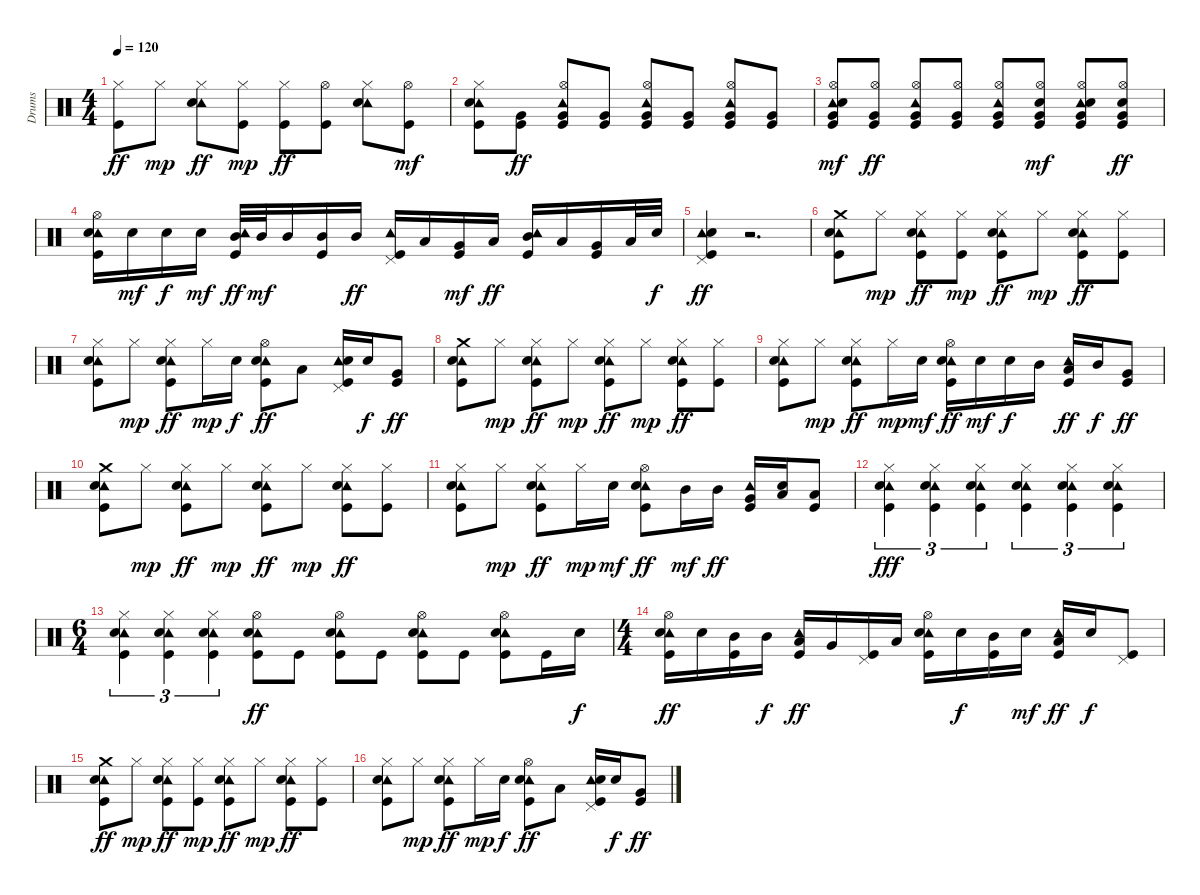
\track ("Drums" "Drums") {instrument percussion}
\staff {score}
\articulation defaults
\ts (4 4)
\tempo 120
\clef neutral
\ks c
("Hi-Hat (closed)" "Kick (hit)").8{dy ff} "Hi-Hat (closed)".8{dy mp} ("Hi-Hat (closed)" "Tambourine (hit)" "Snare (hit) 2").8{dy ff} ("Hi-Hat (closed)" "Kick (hit)").8{dy mp} ("Hi-Hat (closed)" "Kick (hit)").8{dy ff} ("Hi-Hat (open)" "Kick (hit)").8 ("Hi-Hat (closed)" "Tambourine (hit)" "Snare (hit) 2").8 ("Hi-Hat (open)" "Kick (hit)").8{dy mf} |
("Hi-Hat (closed)" "Tambourine (hit)" "Snare (hit) 2" "Kick (hit)").8 ("Very Low Tom (hit)" "Kick (hit)").8{dy ff} ("Hi-Hat (open)" "Tambourine (hit)" "Very Low Tom (hit)" "Kick (hit)").8 ("Very Low Tom (hit)" "Kick (hit)").8 ("Hi-Hat (open)" "Tambourine (hit)" "Very Low Tom (hit)" "Kick (hit)").8 ("Very Low Tom (hit)" "Kick (hit)").8 ("Hi-Hat (open)" "Tambourine (hit)" "Very Low Tom (hit)" "Kick (hit)").8 ("Very Low Tom (hit)" "Kick (hit)").8 |
("Hi-Hat (open)" "Tambourine (hit)" "Very Low Tom (hit)" "Snare (hit) 2" "Kick (hit)").8{dy mf} ("Hi-Hat (open)" "Very Low Tom (hit)" "Kick (hit)").8{dy ff} ("Hi-Hat (open)" "Tambourine (hit)" "Very Low Tom (hit)" "Kick (hit)").8 ("Hi-Hat (open)" "Very Low Tom (hit)" "Kick (hit)").8 ("Hi-Hat (open)" "Tambourine (hit)" "Very Low Tom (hit)" "Kick (hit)").8 ("Hi-Hat (open)" "Very Low Tom (hit)" "Snare (hit) 2" "Kick (hit)").8{dy mf} ("Hi-Hat (open)" "Tambourine (hit)" "Very Low Tom (hit)" "Snare (hit) 2" "Kick (hit)").8 ("Hi-Hat (open)" "Very Low Tom (hit)" "Snare (hit) 2" "Kick (hit)").8{dy ff} |
("Hi-Hat (open)" "Tambourine (hit)" "Snare (hit) 2" "Kick (hit)").16 "Snare (hit) 2".16{dy mf} "Snare (hit) 2".16{dy f} "Snare (hit) 2".16{dy mf} ("Tambourine (hit)" "Mid Tom (hit)" "Kick (hit)").32{dy ff} "Mid Tom (hit)".32{dy mf} "Mid Tom (hit)".16 ("Mid Tom (hit)" "Kick (hit)").16 "Mid Tom (hit)".16{dy ff} ("Pedal Hi-Hat (hit)" "Tambourine (hit)" "Kick (hit)").16 "Low Tom (hit)".16 ("Very Low Tom (hit)" "Kick (hit)").16{dy mf} "Low Floor Tom (hit)".16{dy ff} ("Tambourine (hit)" "Mid Tom (hit)" "Kick (hit)").16 "Low Tom (hit)".16 ("Very Low Tom (hit)" "Kick (hit)").16 "Low Floor Tom (hit)".32 "Snare (hit) 2".32{dy f} |
("Pedal Hi-Hat (hit)" "Tambourine (hit)" "Snare (hit) 2" "Kick (hit)").4{dy ff} r.2{d} |
("Crash medium (hit)" "Tambourine (hit)" "Snare (hit) 2" "Kick (hit)").8 "Hi-Hat (closed)".8{dy mp} ("Hi-Hat (closed)" "Tambourine (hit)" "Snare (hit) 2" "Kick (hit)").8{dy ff} ("Hi-Hat (closed)" "Kick (hit)").8{dy mp} ("Hi-Hat (closed)" "Tambourine (hit)" "Snare (hit) 2" "Kick (hit)").8{dy ff} "Hi-Hat (closed)".8{dy mp} ("Hi-Hat (closed)" "Tambourine (hit)" "Snare (hit) 2" "Kick (hit)").8{dy ff} ("Hi-Hat (closed)" "Kick (hit)").8 |
("Hi-Hat (closed)" "Tambourine (hit)" "Snare (hit) 2" "Kick (hit)").8 "Hi-Hat (closed)".8{dy mp} ("Hi-Hat (closed)" "Tambourine (hit)" "Snare (hit) 2" "Kick (hit)").8{dy ff} "Hi-Hat (closed)".16{dy mp} "Snare (hit) 2".16{dy f} ("Hi-Hat (open)" "Tambourine (hit)" "Snare (hit) 2" "Kick (hit)").8{dy ff} "Low Tom (hit)".8 ("Pedal Hi-Hat (hit)" "Tambourine (hit)" "Snare (hit) 2" "Kick (hit)").16 "Snare (hit) 2".16{dy f} ("Very Low Tom (hit)" "Kick (hit)").8{dy ff} |
("Crash medium (hit)" "Tambourine (hit)" "Snare (hit) 2" "Kick (hit)").8 "Hi-Hat (closed)".8{dy mp} ("Hi-Hat (closed)" "Tambourine (hit)" "Snare (hit) 2" "Kick (hit)").8{dy ff} "Hi-Hat (closed)".8{dy mp} ("Hi-Hat (closed)" "Tambourine (hit)" "Snare (hit) 2" "Kick (hit)").8{dy ff} "Hi-Hat (closed)".8{dy mp} ("Hi-Hat (closed)" "Tambourine (hit)" "Snare (hit) 2" "Kick (hit)").8{dy ff} ("Hi-Hat (closed)" "Kick (hit)").8 |
("Hi-Hat (closed)" "Tambourine (hit)" "Snare (hit) 2" "Kick (hit)").8 "Hi-Hat (closed)".8{dy mp} ("Hi-Hat (closed)" "Tambourine (hit)" "Snare (hit) 2" "Kick (hit)").8{dy ff} "Hi-Hat (closed)".16{dy mp} "Snare (hit) 2".16{dy mf} ("Hi-Hat (open)" "Tambourine (hit)" "Snare (hit) 2" "Kick (hit)").16{dy ff} "Snare (hit) 2".16{dy mf} "Snare (hit) 2".16{dy f} "Mid Tom (hit)".16 ("Tambourine (hit)" "Low Tom (hit)" "Kick (hit)").16{dy ff} "Mid Tom (hit)".16{dy f} ("Very Low Tom (hit)" "Kick (hit)").8{dy ff} |
("Crash medium (hit)" "Tambourine (hit)" "Snare (hit) 2" "Kick (hit)").8 "Hi-Hat (closed)".8{dy mp} ("Hi-Hat (closed)" "Tambourine (hit)" "Snare (hit) 2" "Kick (hit)").8{dy ff} "Hi-Hat (closed)".8{dy mp} ("Hi-Hat (closed)" "Tambourine (hit)" "Snare (hit) 2" "Kick (hit)").8{dy ff} "Hi-Hat (closed)".8{dy mp} ("Hi-Hat (closed)" "Tambourine (hit)" "Snare (hit) 2" "Kick (hit)").8{dy ff} ("Hi-Hat (closed)" "Kick (hit)").8 |
("Hi-Hat (closed)" "Tambourine (hit)" "Snare (hit) 2" "Kick (hit)").8 "Hi-Hat (closed)".8{dy mp} ("Hi-Hat (closed)" "Tambourine (hit)" "Snare (hit) 2" "Kick (hit)").8{dy ff} "Hi-Hat (closed)".16{dy mp} "Snare (hit) 2".16{dy mf} ("Hi-Hat (open)" "Tambourine (hit)" "Snare (hit) 2" "Kick (hit)").8{dy ff} "Mid Tom (hit)".16{dy mf} "Mid Tom (hit)".16{dy ff} ("Tambourine (hit)" "Very Low Tom (hit)" "Kick (hit)").16 ("Low Tom (hit)" "Snare (hit) 2").16 ("Low Floor Tom (hit)" "Kick (hit)").8 |
("Hi-Hat (closed)" "Tambourine (hit)" "Snare (hit) 2" "Kick (hit)").4{tu (3 2) dy fff} ("Hi-Hat (closed)" "Tambourine (hit)" "Snare (hit) 2" "Kick (hit)").4{tu (3 2)} ("Hi-Hat (closed)" "Tambourine (hit)" "Snare (hit) 2" "Kick (hit)").4{tu (3 2)} ("Hi-Hat (closed)" "Tambourine (hit)" "Snare (hit) 2" "Kick (hit)").4{tu (3 2)} ("Hi-Hat (closed)" "Tambourine (hit)" "Snare (hit) 2" "Kick (hit)").4{tu (3 2)} ("Hi-Hat (closed)" "Tambourine (hit)" "Snare (hit) 2" "Kick (hit)").4{tu (3 2)} |
\ts (6 4)
("Hi-Hat (closed)" "Tambourine (hit)" "Snare (hit) 2" "Kick (hit)").4{tu (3 2)} ("Hi-Hat (closed)" "Tambourine (hit)" "Snare (hit) 2" "Kick (hit)").4{tu (3 2)} ("Hi-Hat (closed)" "Tambourine (hit)" "Snare (hit) 2" "Kick (hit)").4{tu (3 2)} ("Hi-Hat (open)" "Tambourine (hit)" "Snare (hit) 2" "Kick (hit)").8{dy ff} "Kick (hit)".8 ("Hi-Hat (open)" "Tambourine (hit)" "Snare (hit) 2" "Kick (hit)").8 "Kick (hit)".8 ("Hi-Hat (open)" "Tambourine (hit)" "Snare (hit) 2" "Kick (hit)").8 "Kick (hit)".8 ("Hi-Hat (open)" "Tambourine (hit)" "Snare (hit) 2" "Kick (hit)").8 "Kick (hit)".16 "Snare (hit) 2".16{dy f} |
\ts (4 4)
("Hi-Hat (open)" "Tambourine (hit)" "Snare (hit) 2" "Kick (hit)").16{dy ff} "Snare (hit) 2".16 ("Mid Tom (hit)" "Kick (hit)").16 "Mid Tom (hit)".16{dy f} ("Tambourine (hit)" "Low Tom (hit)" "Kick (hit)").16{dy ff} "Very Low Tom (hit)".16 ("Pedal Hi-Hat (hit)" "Kick (hit)").16 "Low Floor Tom (hit)".16 ("Hi-Hat (open)" "Tambourine (hit)" "Snare (hit) 2" "Kick (hit)").16 "Snare (hit) 2".16{dy f} ("Mid Tom (hit)" "Kick (hit)").16 "Snare (hit) 2".16{dy mf} ("Tambourine (hit)" "Low Tom (hit)" "Kick (hit)").16{dy ff} "Snare (hit) 2".16{dy f} ("Pedal Hi-Hat (hit)" "Kick (hit)").8 |
("Crash medium (hit)" "Tambourine (hit)" "Snare (hit) 2" "Kick (hit)").8{dy ff} "Hi-Hat (closed)".8{dy mp} ("Hi-Hat (closed)" "Tambourine (hit)" "Snare (hit) 2" "Kick (hit)").8{dy ff} ("Hi-Hat (closed)" "Kick (hit)").8{dy mp} ("Hi-Hat (closed)" "Tambourine (hit)" "Snare (hit) 2" "Kick (hit)").8{dy ff} "Hi-Hat (closed)".8{dy mp} ("Hi-Hat (closed)" "Tambourine (hit)" "Snare (hit) 2" "Kick (hit)").8{dy ff} ("Hi-Hat (closed)" "Kick (hit)").8 |
("Hi-Hat (closed)" "Tambourine (hit)" "Snare (hit) 2" "Kick (hit)").8 "Hi-Hat (closed)".8{dy mp} ("Hi-Hat (closed)" "Tambourine (hit)" "Snare (hit) 2" "Kick (hit)").8{dy ff} "Hi-Hat (closed)".16{dy mp} "Snare (hit) 2".16{dy f} ("Hi-Hat (open)" "Tambourine (hit)" "Snare (hit) 2" "Kick (hit)").8{dy ff} "Low Tom (hit)".8 ("Pedal Hi-Hat (hit)" "Tambourine (hit)" "Snare (hit) 2" "Kick (hit)").16 "Snare (hit) 2".16{dy f} ("Very Low Tom (hit)" "Kick (hit)").8{dy ff}
